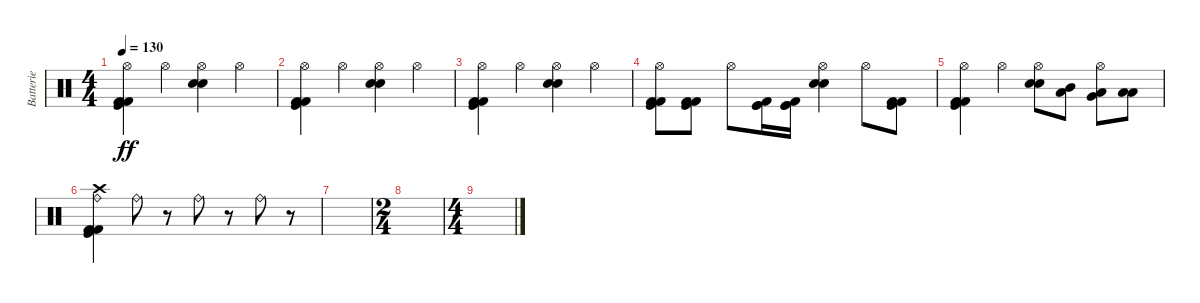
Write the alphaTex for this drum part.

\track ("Batterie" "Batterie") {instrument percussion}
\staff {score}
\articulation defaults
\ts (4 4)
\tempo 130
\clef neutral
\ks c
("Hi-Hat (open)" "Kick (hit) 2" "Kick (hit) 2" "Kick (hit)").4{dy ff} "Hi-Hat (open)".4 ("Hi-Hat (open)" "Electric Snare (hit)" "Electric Snare (hit)").4 "Hi-Hat (open)".4 |
("Hi-Hat (open)" "Kick (hit) 2" "Kick (hit) 2" "Kick (hit)").4 "Hi-Hat (open)".4 ("Hi-Hat (open)" "Electric Snare (hit)" "Electric Snare (hit)").4 "Hi-Hat (open)".4 |
("Hi-Hat (open)" "Kick (hit) 2" "Kick (hit) 2" "Kick (hit)").4 "Hi-Hat (open)".4 ("Hi-Hat (open)" "Electric Snare (hit)" "Electric Snare (hit)").4 "Hi-Hat (open)".4 |
("Hi-Hat (open)" "Kick (hit) 2" "Kick (hit) 2" "Kick (hit)").8 ("Kick (hit) 2" "Kick (hit) 2" "Kick (hit)").8 "Hi-Hat (open)".8 ("Kick (hit)" "Kick (hit) 2" "Kick (hit)").16 ("Kick (hit)" "Kick (hit) 2" "Kick (hit)").16 ("Hi-Hat (open)" "Electric Snare (hit)" "Electric Snare (hit)").4 "Hi-Hat (open)".8 ("Kick (hit) 2" "Kick (hit) 2" "Kick (hit)").8 |
("Hi-Hat (open)" "Kick (hit) 2" "Kick (hit) 2" "Kick (hit)").4 "Hi-Hat (open)".4 ("Hi-Hat (open)" "Electric Snare (hit)" "Electric Snare (hit)").8 ("Mid Tom (hit)" "Low Floor Tom (hit)").8 ("Hi-Hat (open)" "Very Low Tom (hit)" "Low Floor Tom (hit)").8 ("Low Floor Tom (hit)" "Low Floor Tom (hit)").8 |
("Ride (bell)" "Crash high (hit)" "Kick (hit)" "Kick (hit) 2" "Kick (hit) 2").4 "Ride (bell)".8 r.8 "Ride (bell)".8 r.8 "Ride (bell)".8 r.8 |
|
\ts (2 4)
|
\ts (4 4)
